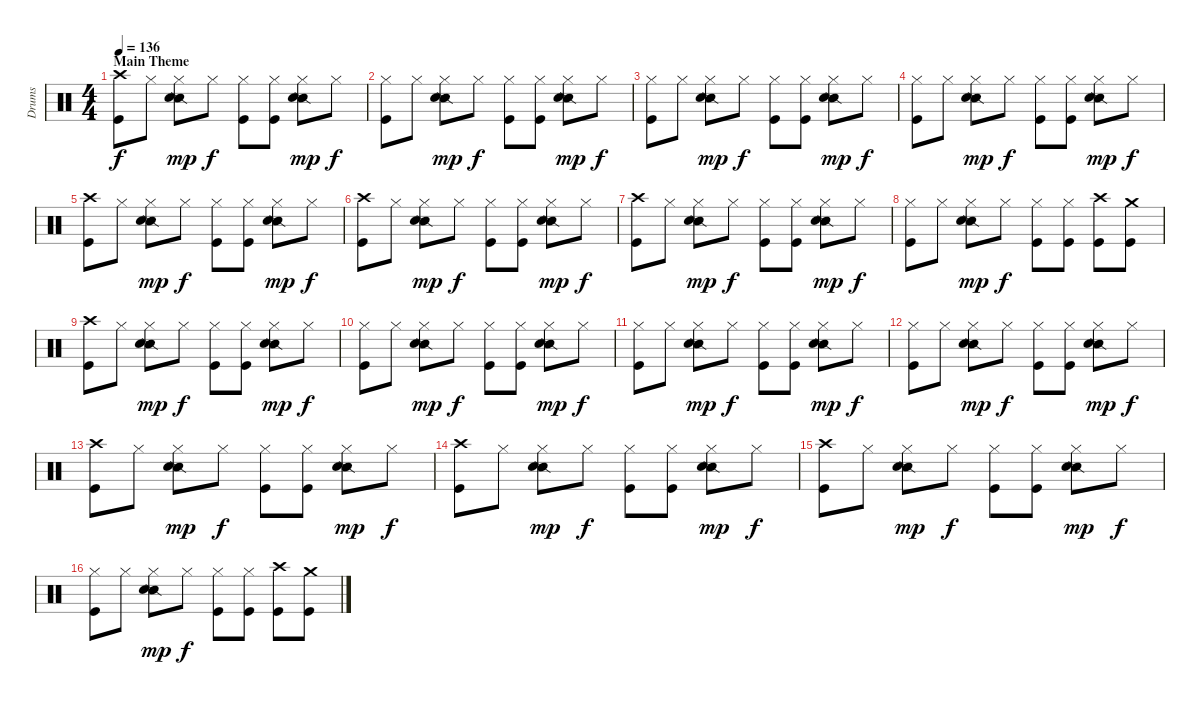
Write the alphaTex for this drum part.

\track ("Drums" "Drums") {instrument percussion}
\staff {score}
\articulation defaults
\ts (4 4)
\section ("" "Main Theme")
\tempo 136
\clef neutral
\ks c
("Crash high (hit)" "Kick (hit)").8{dy f} "Hi-Hat (closed)".8 ("Hi-Hat (closed)" "Snare (side stick) 2" "Snare (hit) 2").8{dy mp} "Hi-Hat (closed)".8{dy f} ("Hi-Hat (closed)" "Kick (hit)").8 ("Hi-Hat (closed)" "Kick (hit)").8 ("Hi-Hat (closed)" "Snare (side stick) 2" "Snare (hit) 2").8{dy mp} "Hi-Hat (closed)".8{dy f} |
("Hi-Hat (closed)" "Kick (hit)").8 "Hi-Hat (closed)".8 ("Hi-Hat (closed)" "Snare (side stick) 2" "Snare (hit) 2").8{dy mp} "Hi-Hat (closed)".8{dy f} ("Hi-Hat (closed)" "Kick (hit)").8 ("Hi-Hat (closed)" "Kick (hit)").8 ("Hi-Hat (closed)" "Snare (side stick) 2" "Snare (hit) 2").8{dy mp} "Hi-Hat (closed)".8{dy f} |
("Hi-Hat (closed)" "Kick (hit)").8 "Hi-Hat (closed)".8 ("Hi-Hat (closed)" "Snare (side stick) 2" "Snare (hit) 2").8{dy mp} "Hi-Hat (closed)".8{dy f} ("Hi-Hat (closed)" "Kick (hit)").8 ("Hi-Hat (closed)" "Kick (hit)").8 ("Hi-Hat (closed)" "Snare (side stick) 2" "Snare (hit) 2").8{dy mp} "Hi-Hat (closed)".8{dy f} |
("Hi-Hat (closed)" "Kick (hit)").8 "Hi-Hat (closed)".8 ("Hi-Hat (closed)" "Snare (side stick) 2" "Snare (hit) 2").8{dy mp} "Hi-Hat (closed)".8{dy f} ("Hi-Hat (closed)" "Kick (hit)").8 ("Hi-Hat (closed)" "Kick (hit)").8 ("Hi-Hat (closed)" "Snare (side stick) 2" "Snare (hit) 2").8{dy mp} "Hi-Hat (closed)".8{dy f} |
("Crash high (hit)" "Kick (hit)").8 "Hi-Hat (closed)".8 ("Hi-Hat (closed)" "Snare (side stick) 2" "Snare (hit) 2").8{dy mp} "Hi-Hat (closed)".8{dy f} ("Hi-Hat (closed)" "Kick (hit)").8 ("Hi-Hat (closed)" "Kick (hit)").8 ("Hi-Hat (closed)" "Snare (side stick) 2" "Snare (hit) 2").8{dy mp} "Hi-Hat (closed)".8{dy f} |
("Crash high (hit)" "Kick (hit)").8 "Hi-Hat (closed)".8 ("Hi-Hat (closed)" "Snare (side stick) 2" "Snare (hit) 2").8{dy mp} "Hi-Hat (closed)".8{dy f} ("Hi-Hat (closed)" "Kick (hit)").8 ("Hi-Hat (closed)" "Kick (hit)").8 ("Hi-Hat (closed)" "Snare (side stick) 2" "Snare (hit) 2").8{dy mp} "Hi-Hat (closed)".8{dy f} |
("Crash high (hit)" "Kick (hit)").8 "Hi-Hat (closed)".8 ("Hi-Hat (closed)" "Snare (side stick) 2" "Snare (hit) 2").8{dy mp} "Hi-Hat (closed)".8{dy f} ("Hi-Hat (closed)" "Kick (hit)").8 ("Hi-Hat (closed)" "Kick (hit)").8 ("Hi-Hat (closed)" "Snare (side stick) 2" "Snare (hit) 2").8{dy mp} "Hi-Hat (closed)".8{dy f} |
("Hi-Hat (closed)" "Kick (hit)").8 "Hi-Hat (closed)".8 ("Hi-Hat (closed)" "Snare (side stick) 2" "Snare (hit) 2").8{dy mp} "Hi-Hat (closed)".8{dy f} ("Hi-Hat (closed)" "Kick (hit)").8 ("Hi-Hat (closed)" "Kick (hit)").8 ("Crash high (hit)" "Kick (hit)").8 ("Crash medium (hit)" "Kick (hit)").8 |
("Crash high (hit)" "Kick (hit)").8 "Hi-Hat (closed)".8 ("Hi-Hat (closed)" "Snare (side stick) 2" "Snare (hit) 2").8{dy mp} "Hi-Hat (closed)".8{dy f} ("Hi-Hat (closed)" "Kick (hit)").8 ("Hi-Hat (closed)" "Kick (hit)").8 ("Hi-Hat (closed)" "Snare (side stick) 2" "Snare (hit) 2").8{dy mp} "Hi-Hat (closed)".8{dy f} |
("Hi-Hat (closed)" "Kick (hit)").8 "Hi-Hat (closed)".8 ("Hi-Hat (closed)" "Snare (side stick) 2" "Snare (hit) 2").8{dy mp} "Hi-Hat (closed)".8{dy f} ("Hi-Hat (closed)" "Kick (hit)").8 ("Hi-Hat (closed)" "Kick (hit)").8 ("Hi-Hat (closed)" "Snare (side stick) 2" "Snare (hit) 2").8{dy mp} "Hi-Hat (closed)".8{dy f} |
("Hi-Hat (closed)" "Kick (hit)").8 "Hi-Hat (closed)".8 ("Hi-Hat (closed)" "Snare (side stick) 2" "Snare (hit) 2").8{dy mp} "Hi-Hat (closed)".8{dy f} ("Hi-Hat (closed)" "Kick (hit)").8 ("Hi-Hat (closed)" "Kick (hit)").8 ("Hi-Hat (closed)" "Snare (side stick) 2" "Snare (hit) 2").8{dy mp} "Hi-Hat (closed)".8{dy f} |
("Hi-Hat (closed)" "Kick (hit)").8 "Hi-Hat (closed)".8 ("Hi-Hat (closed)" "Snare (side stick) 2" "Snare (hit) 2").8{dy mp} "Hi-Hat (closed)".8{dy f} ("Hi-Hat (closed)" "Kick (hit)").8 ("Hi-Hat (closed)" "Kick (hit)").8 ("Hi-Hat (closed)" "Snare (side stick) 2" "Snare (hit) 2").8{dy mp} "Hi-Hat (closed)".8{dy f} |
("Crash high (hit)" "Kick (hit)").8 "Hi-Hat (closed)".8 ("Hi-Hat (closed)" "Snare (side stick) 2" "Snare (hit) 2").8{dy mp} "Hi-Hat (closed)".8{dy f} ("Hi-Hat (closed)" "Kick (hit)").8 ("Hi-Hat (closed)" "Kick (hit)").8 ("Hi-Hat (closed)" "Snare (side stick) 2" "Snare (hit) 2").8{dy mp} "Hi-Hat (closed)".8{dy f} |
("Crash high (hit)" "Kick (hit)").8 "Hi-Hat (closed)".8 ("Hi-Hat (closed)" "Snare (side stick) 2" "Snare (hit) 2").8{dy mp} "Hi-Hat (closed)".8{dy f} ("Hi-Hat (closed)" "Kick (hit)").8 ("Hi-Hat (closed)" "Kick (hit)").8 ("Hi-Hat (closed)" "Snare (side stick) 2" "Snare (hit) 2").8{dy mp} "Hi-Hat (closed)".8{dy f} |
("Crash high (hit)" "Kick (hit)").8 "Hi-Hat (closed)".8 ("Hi-Hat (closed)" "Snare (side stick) 2" "Snare (hit) 2").8{dy mp} "Hi-Hat (closed)".8{dy f} ("Hi-Hat (closed)" "Kick (hit)").8 ("Hi-Hat (closed)" "Kick (hit)").8 ("Hi-Hat (closed)" "Snare (side stick) 2" "Snare (hit) 2").8{dy mp} "Hi-Hat (closed)".8{dy f} |
("Hi-Hat (closed)" "Kick (hit)").8 "Hi-Hat (closed)".8 ("Hi-Hat (closed)" "Snare (side stick) 2" "Snare (hit) 2").8{dy mp} "Hi-Hat (closed)".8{dy f} ("Hi-Hat (closed)" "Kick (hit)").8 ("Hi-Hat (closed)" "Kick (hit)").8 ("Crash high (hit)" "Kick (hit)").8 ("Crash medium (hit)" "Kick (hit)").8
